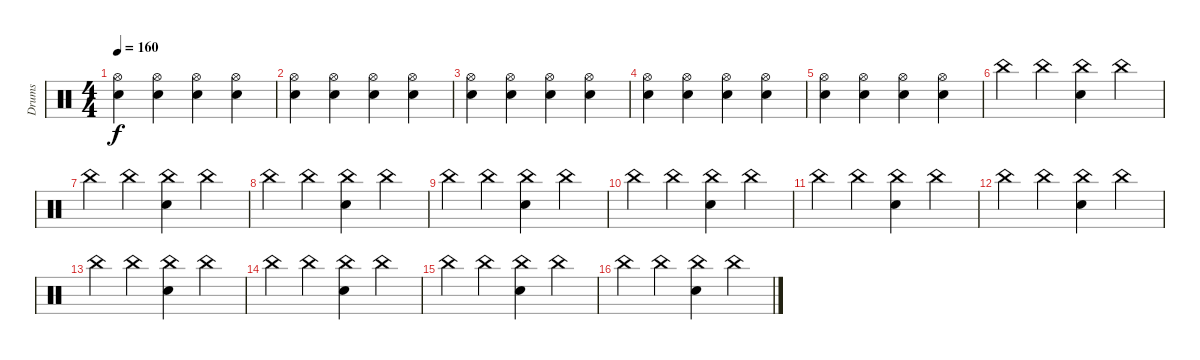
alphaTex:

\track ("Drums" "Drums") {instrument percussion}
\staff {score}
\articulation defaults
\ts (4 4)
\tempo 160
\clef neutral
\ks c
("Hi-Hat (open)" "Electric Snare (hit)").4{dy f} ("Hi-Hat (open)" "Electric Snare (hit)").4 ("Hi-Hat (open)" "Electric Snare (hit)").4 ("Hi-Hat (open)" "Electric Snare (hit)").4 |
("Hi-Hat (open)" "Electric Snare (hit)").4 ("Hi-Hat (open)" "Electric Snare (hit)").4 ("Hi-Hat (open)" "Electric Snare (hit)").4 ("Hi-Hat (open)" "Electric Snare (hit)").4 |
("Hi-Hat (open)" "Electric Snare (hit)").4 ("Hi-Hat (open)" "Electric Snare (hit)").4 ("Hi-Hat (open)" "Electric Snare (hit)").4 ("Hi-Hat (open)" "Electric Snare (hit)").4 |
("Hi-Hat (open)" "Electric Snare (hit)").4 ("Hi-Hat (open)" "Electric Snare (hit)").4 ("Hi-Hat (open)" "Electric Snare (hit)").4 ("Hi-Hat (open)" "Electric Snare (hit)").4 |
("Hi-Hat (open)" "Electric Snare (hit)").4 ("Hi-Hat (open)" "Electric Snare (hit)").4 ("Hi-Hat (open)" "Electric Snare (hit)").4 ("Hi-Hat (open)" "Electric Snare (hit)").4 |
"China (hit)".4 "China (hit)".4 ("China (hit)" "Electric Snare (hit)").4 "China (hit)".4 |
"China (hit)".4 "China (hit)".4 ("China (hit)" "Electric Snare (hit)").4 "China (hit)".4 |
"China (hit)".4 "China (hit)".4 ("China (hit)" "Electric Snare (hit)").4 "China (hit)".4 |
"China (hit)".4 "China (hit)".4 ("China (hit)" "Electric Snare (hit)").4 "China (hit)".4 |
"China (hit)".4 "China (hit)".4 ("China (hit)" "Electric Snare (hit)").4 "China (hit)".4 |
"China (hit)".4 "China (hit)".4 ("China (hit)" "Electric Snare (hit)").4 "China (hit)".4 |
"China (hit)".4 "China (hit)".4 ("China (hit)" "Electric Snare (hit)").4 "China (hit)".4 |
"China (hit)".4 "China (hit)".4 ("China (hit)" "Electric Snare (hit)").4 "China (hit)".4 |
"China (hit)".4 "China (hit)".4 ("China (hit)" "Electric Snare (hit)").4 "China (hit)".4 |
"China (hit)".4 "China (hit)".4 ("China (hit)" "Electric Snare (hit)").4 "China (hit)".4 |
"China (hit)".4 "China (hit)".4 ("China (hit)" "Electric Snare (hit)").4 "China (hit)".4
